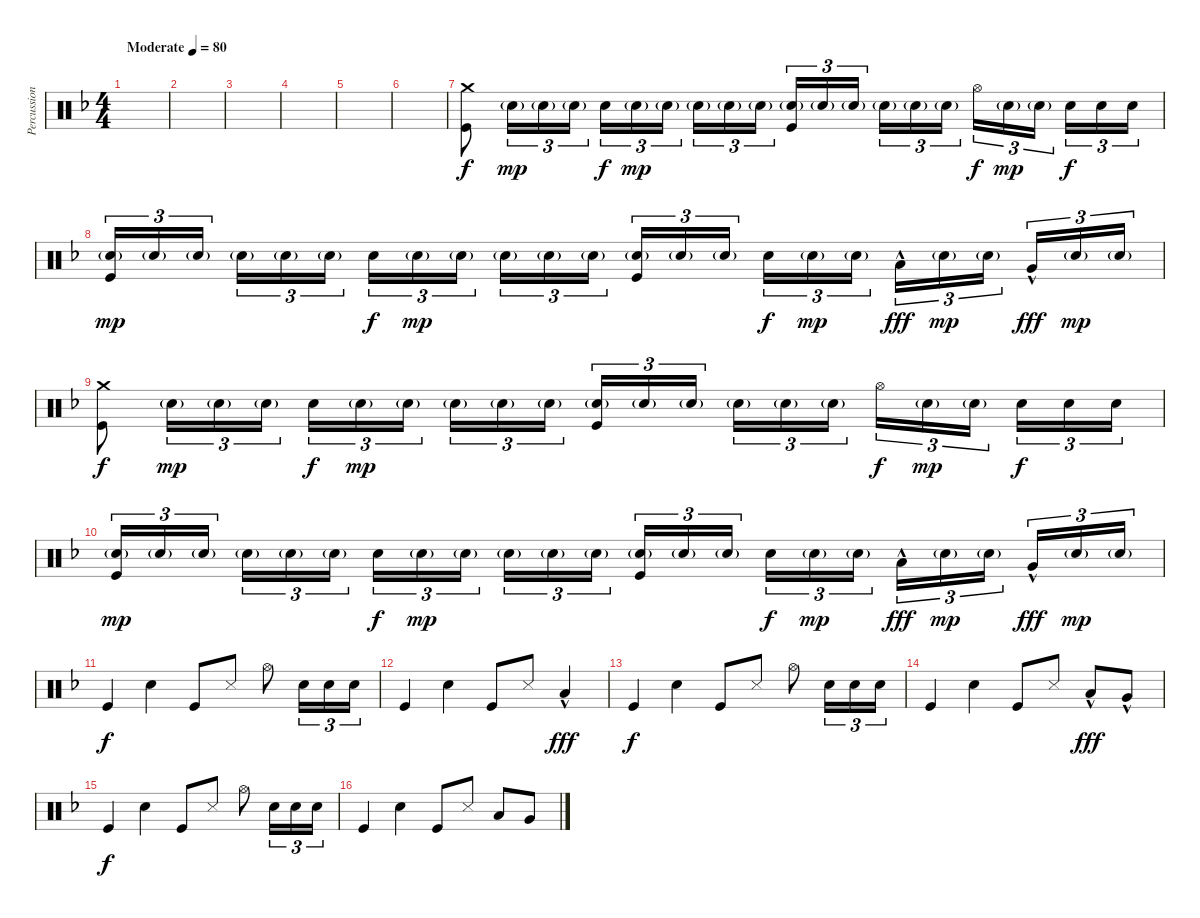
\track ("Percussion" "Percussion") {instrument percussion}
\staff {score}
\articulation defaults
\ts (4 4)
\tempo (80 "Moderate")
\clef neutral
\ks f
|
|
|
|
|
|
("Crash medium (hit)" "Kick (hit)").8 "Electric Snare (hit)"{g}.16{tu (3 2) dy mp} "Electric Snare (hit)"{g}.16{tu (3 2)} "Electric Snare (hit)"{g}.16{tu (3 2)} "Electric Snare (hit)".16{tu (3 2) dy f} "Electric Snare (hit)"{g}.16{tu (3 2) dy mp} "Electric Snare (hit)"{g}.16{tu (3 2) beam splitsecondary} "Electric Snare (hit)"{g}.16{tu (3 2)} "Electric Snare (hit)"{g}.16{tu (3 2)} "Electric Snare (hit)"{g}.16{tu (3 2)} ("Electric Snare (hit)"{g} "Kick (hit)").16{tu (3 2)} "Electric Snare (hit)"{g}.16{tu (3 2)} "Electric Snare (hit)"{g}.16{tu (3 2) beam splitsecondary} "Electric Snare (hit)"{g}.16{tu (3 2)} "Electric Snare (hit)"{g}.16{tu (3 2)} "Electric Snare (hit)"{g}.16{tu (3 2)} "Hi-Hat (open)".16{tu (3 2) dy f} "Electric Snare (hit)"{g}.16{tu (3 2) dy mp} "Electric Snare (hit)"{g}.16{tu (3 2) beam splitsecondary} "Electric Snare (hit)".16{tu (3 2) dy f} "Electric Snare (hit)".16{tu (3 2)} "Electric Snare (hit)".16{tu (3 2)} |
("Electric Snare (hit)"{g} "Kick (hit)").16{tu (3 2) dy mp} "Electric Snare (hit)"{g}.16{tu (3 2)} "Electric Snare (hit)"{g}.16{tu (3 2) beam splitsecondary} "Electric Snare (hit)"{g}.16{tu (3 2)} "Electric Snare (hit)"{g}.16{tu (3 2)} "Electric Snare (hit)"{g}.16{tu (3 2)} "Electric Snare (hit)".16{tu (3 2) dy f} "Electric Snare (hit)"{g}.16{tu (3 2) dy mp} "Electric Snare (hit)"{g}.16{tu (3 2) beam splitsecondary} "Electric Snare (hit)"{g}.16{tu (3 2)} "Electric Snare (hit)"{g}.16{tu (3 2)} "Electric Snare (hit)"{g}.16{tu (3 2)} ("Electric Snare (hit)"{g} "Kick (hit)").16{tu (3 2)} "Electric Snare (hit)"{g}.16{tu (3 2)} "Electric Snare (hit)"{g}.16{tu (3 2) beam splitsecondary} "Electric Snare (hit)".16{tu (3 2) dy f} "Electric Snare (hit)"{g}.16{tu (3 2) dy mp} "Electric Snare (hit)"{g}.16{tu (3 2)} "Low Tom (hit)"{hac}.16{tu (3 2) dy fff} "Electric Snare (hit)"{g}.16{tu (3 2) dy mp} "Electric Snare (hit)"{g}.16{tu (3 2) beam splitsecondary} "Very Low Tom (hit)"{hac}.16{tu (3 2) dy fff} "Electric Snare (hit)"{g}.16{tu (3 2) dy mp} "Electric Snare (hit)"{g}.16{tu (3 2)} |
("Crash medium (hit)" "Kick (hit)").8{dy f} "Electric Snare (hit)"{g}.16{tu (3 2) dy mp} "Electric Snare (hit)"{g}.16{tu (3 2)} "Electric Snare (hit)"{g}.16{tu (3 2)} "Electric Snare (hit)".16{tu (3 2) dy f} "Electric Snare (hit)"{g}.16{tu (3 2) dy mp} "Electric Snare (hit)"{g}.16{tu (3 2) beam splitsecondary} "Electric Snare (hit)"{g}.16{tu (3 2)} "Electric Snare (hit)"{g}.16{tu (3 2)} "Electric Snare (hit)"{g}.16{tu (3 2)} ("Electric Snare (hit)"{g} "Kick (hit)").16{tu (3 2)} "Electric Snare (hit)"{g}.16{tu (3 2)} "Electric Snare (hit)"{g}.16{tu (3 2) beam splitsecondary} "Electric Snare (hit)"{g}.16{tu (3 2)} "Electric Snare (hit)"{g}.16{tu (3 2)} "Electric Snare (hit)"{g}.16{tu (3 2)} "Hi-Hat (open)".16{tu (3 2) dy f} "Electric Snare (hit)"{g}.16{tu (3 2) dy mp} "Electric Snare (hit)"{g}.16{tu (3 2) beam splitsecondary} "Electric Snare (hit)".16{tu (3 2) dy f} "Electric Snare (hit)".16{tu (3 2)} "Electric Snare (hit)".16{tu (3 2)} |
("Electric Snare (hit)"{g} "Kick (hit)").16{tu (3 2) dy mp} "Electric Snare (hit)"{g}.16{tu (3 2)} "Electric Snare (hit)"{g}.16{tu (3 2) beam splitsecondary} "Electric Snare (hit)"{g}.16{tu (3 2)} "Electric Snare (hit)"{g}.16{tu (3 2)} "Electric Snare (hit)"{g}.16{tu (3 2)} "Electric Snare (hit)".16{tu (3 2) dy f} "Electric Snare (hit)"{g}.16{tu (3 2) dy mp} "Electric Snare (hit)"{g}.16{tu (3 2) beam splitsecondary} "Electric Snare (hit)"{g}.16{tu (3 2)} "Electric Snare (hit)"{g}.16{tu (3 2)} "Electric Snare (hit)"{g}.16{tu (3 2)} ("Electric Snare (hit)"{g} "Kick (hit)").16{tu (3 2)} "Electric Snare (hit)"{g}.16{tu (3 2)} "Electric Snare (hit)"{g}.16{tu (3 2) beam splitsecondary} "Electric Snare (hit)".16{tu (3 2) dy f} "Electric Snare (hit)"{g}.16{tu (3 2) dy mp} "Electric Snare (hit)"{g}.16{tu (3 2)} "Low Tom (hit)"{hac}.16{tu (3 2) dy fff} "Electric Snare (hit)"{g}.16{tu (3 2) dy mp} "Electric Snare (hit)"{g}.16{tu (3 2) beam splitsecondary} "Very Low Tom (hit)"{hac}.16{tu (3 2) dy fff} "Electric Snare (hit)"{g}.16{tu (3 2) dy mp} "Electric Snare (hit)"{g}.16{tu (3 2)} |
"Kick (hit)".4{dy f} "Electric Snare (hit)".4 "Kick (hit)".8 "Snare (side stick) 3".8 "Hi-Hat (open)".8 "Electric Snare (hit)".16{tu (3 2)} "Electric Snare (hit)".16{tu (3 2)} "Electric Snare (hit)".16{tu (3 2)} |
"Kick (hit)".4 "Electric Snare (hit)".4 "Kick (hit)".8 "Snare (side stick) 3".8 "Low Tom (hit)"{hac}.4{dy fff} |
"Kick (hit)".4{dy f} "Electric Snare (hit)".4 "Kick (hit)".8 "Snare (side stick) 3".8 "Hi-Hat (open)".8 "Electric Snare (hit)".16{tu (3 2)} "Electric Snare (hit)".16{tu (3 2)} "Electric Snare (hit)".16{tu (3 2)} |
"Kick (hit)".4 "Electric Snare (hit)".4 "Kick (hit)".8 "Snare (side stick) 3".8 "Low Tom (hit)"{hac}.8{dy fff} "Very Low Tom (hit)"{hac}.8 |
"Kick (hit)".4{dy f} "Electric Snare (hit)".4 "Kick (hit)".8 "Snare (side stick) 3".8 "Hi-Hat (open)".8 "Electric Snare (hit)".16{tu (3 2)} "Electric Snare (hit)".16{tu (3 2)} "Electric Snare (hit)".16{tu (3 2)} |
"Kick (hit)".4 "Electric Snare (hit)".4 "Kick (hit)".8 "Snare (side stick) 3".8 "Low Tom (hit)".8 "Very Low Tom (hit)".8
